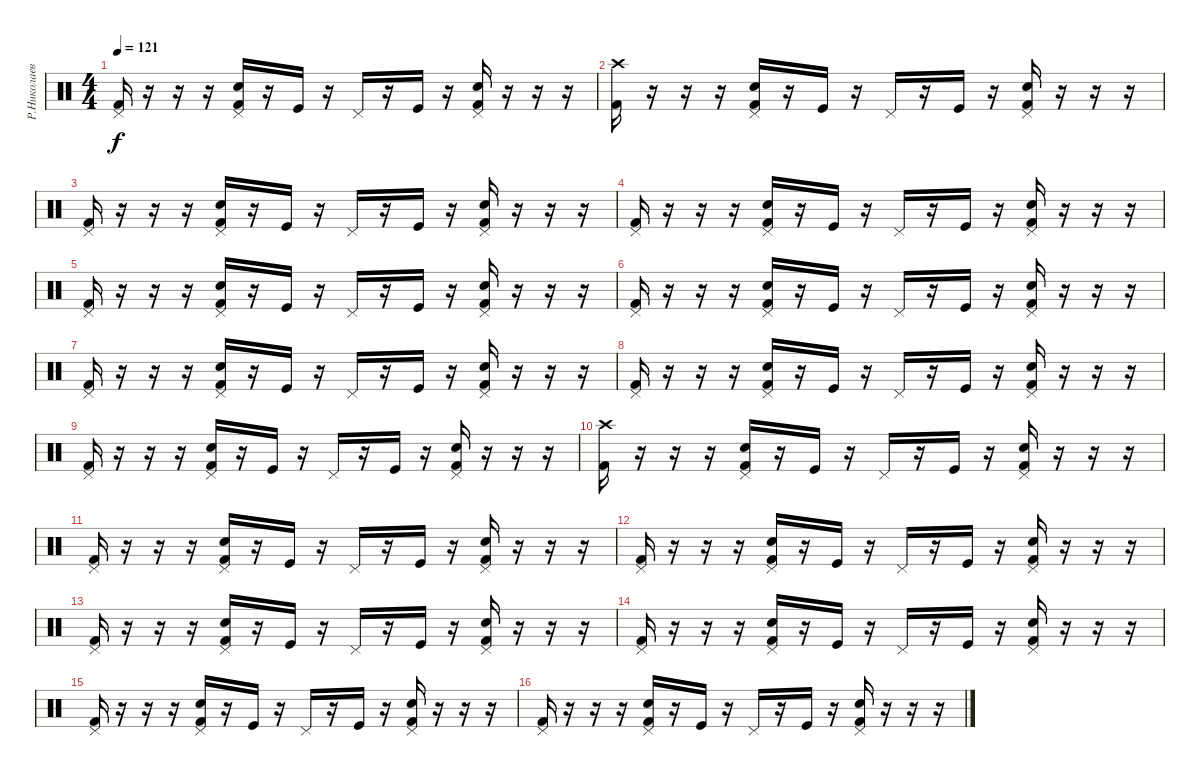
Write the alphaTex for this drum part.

\track ("Р.Николаев" "Р.Николаев") {instrument percussion}
\staff {score}
\articulation defaults
\ts (4 4)
\tempo 121
\clef neutral
\ks c
("Pedal Hi-Hat (hit)" "Kick (hit) 2").16{dy f} r.16 r.16 r.16 ("Pedal Hi-Hat (hit)" "Snare (hit) 2" "Kick (hit) 2").16 r.16 "Kick (hit)".16 r.16 "Pedal Hi-Hat (hit)".16 r.16 "Kick (hit)".16 r.16 ("Pedal Hi-Hat (hit)" "Snare (hit) 2" "Kick (hit) 2").16 r.16 r.16 r.16 |
("Crash high (hit)" "Kick (hit) 2").16 r.16 r.16 r.16 ("Pedal Hi-Hat (hit)" "Snare (hit) 2" "Kick (hit) 2").16 r.16 "Kick (hit)".16 r.16 "Pedal Hi-Hat (hit)".16 r.16 "Kick (hit)".16 r.16 ("Pedal Hi-Hat (hit)" "Snare (hit) 2" "Kick (hit) 2").16 r.16 r.16 r.16 |
("Pedal Hi-Hat (hit)" "Kick (hit) 2").16 r.16 r.16 r.16 ("Pedal Hi-Hat (hit)" "Snare (hit) 2" "Kick (hit) 2").16 r.16 "Kick (hit)".16 r.16 "Pedal Hi-Hat (hit)".16 r.16 "Kick (hit)".16 r.16 ("Pedal Hi-Hat (hit)" "Snare (hit) 2" "Kick (hit) 2").16 r.16 r.16 r.16 |
("Pedal Hi-Hat (hit)" "Kick (hit) 2").16 r.16 r.16 r.16 ("Pedal Hi-Hat (hit)" "Snare (hit) 2" "Kick (hit) 2").16 r.16 "Kick (hit)".16 r.16 "Pedal Hi-Hat (hit)".16 r.16 "Kick (hit)".16 r.16 ("Pedal Hi-Hat (hit)" "Snare (hit) 2" "Kick (hit) 2").16 r.16 r.16 r.16 |
("Pedal Hi-Hat (hit)" "Kick (hit) 2").16 r.16 r.16 r.16 ("Pedal Hi-Hat (hit)" "Snare (hit) 2" "Kick (hit) 2").16 r.16 "Kick (hit)".16 r.16 "Pedal Hi-Hat (hit)".16 r.16 "Kick (hit)".16 r.16 ("Pedal Hi-Hat (hit)" "Snare (hit) 2" "Kick (hit) 2").16 r.16 r.16 r.16 |
("Pedal Hi-Hat (hit)" "Kick (hit) 2").16 r.16 r.16 r.16 ("Pedal Hi-Hat (hit)" "Snare (hit) 2" "Kick (hit) 2").16 r.16 "Kick (hit)".16 r.16 "Pedal Hi-Hat (hit)".16 r.16 "Kick (hit)".16 r.16 ("Pedal Hi-Hat (hit)" "Snare (hit) 2" "Kick (hit) 2").16 r.16 r.16 r.16 |
("Pedal Hi-Hat (hit)" "Kick (hit) 2").16 r.16 r.16 r.16 ("Pedal Hi-Hat (hit)" "Snare (hit) 2" "Kick (hit) 2").16 r.16 "Kick (hit)".16 r.16 "Pedal Hi-Hat (hit)".16 r.16 "Kick (hit)".16 r.16 ("Pedal Hi-Hat (hit)" "Snare (hit) 2" "Kick (hit) 2").16 r.16 r.16 r.16 |
("Pedal Hi-Hat (hit)" "Kick (hit) 2").16 r.16 r.16 r.16 ("Pedal Hi-Hat (hit)" "Snare (hit) 2" "Kick (hit) 2").16 r.16 "Kick (hit)".16 r.16 "Pedal Hi-Hat (hit)".16 r.16 "Kick (hit)".16 r.16 ("Pedal Hi-Hat (hit)" "Snare (hit) 2" "Kick (hit) 2").16 r.16 r.16 r.16 |
("Pedal Hi-Hat (hit)" "Kick (hit) 2").16 r.16 r.16 r.16 ("Pedal Hi-Hat (hit)" "Snare (hit) 2" "Kick (hit) 2").16 r.16 "Kick (hit)".16 r.16 "Pedal Hi-Hat (hit)".16 r.16 "Kick (hit)".16 r.16 ("Pedal Hi-Hat (hit)" "Snare (hit) 2" "Kick (hit) 2").16 r.16 r.16 r.16 |
("Crash high (hit)" "Kick (hit) 2").16 r.16 r.16 r.16 ("Pedal Hi-Hat (hit)" "Snare (hit) 2" "Kick (hit) 2").16 r.16 "Kick (hit)".16 r.16 "Pedal Hi-Hat (hit)".16 r.16 "Kick (hit)".16 r.16 ("Pedal Hi-Hat (hit)" "Snare (hit) 2" "Kick (hit) 2").16 r.16 r.16 r.16 |
("Pedal Hi-Hat (hit)" "Kick (hit) 2").16 r.16 r.16 r.16 ("Pedal Hi-Hat (hit)" "Snare (hit) 2" "Kick (hit) 2").16 r.16 "Kick (hit)".16 r.16 "Pedal Hi-Hat (hit)".16 r.16 "Kick (hit)".16 r.16 ("Pedal Hi-Hat (hit)" "Snare (hit) 2" "Kick (hit) 2").16 r.16 r.16 r.16 |
("Pedal Hi-Hat (hit)" "Kick (hit) 2").16 r.16 r.16 r.16 ("Pedal Hi-Hat (hit)" "Snare (hit) 2" "Kick (hit) 2").16 r.16 "Kick (hit)".16 r.16 "Pedal Hi-Hat (hit)".16 r.16 "Kick (hit)".16 r.16 ("Pedal Hi-Hat (hit)" "Snare (hit) 2" "Kick (hit) 2").16 r.16 r.16 r.16 |
("Pedal Hi-Hat (hit)" "Kick (hit) 2").16 r.16 r.16 r.16 ("Pedal Hi-Hat (hit)" "Snare (hit) 2" "Kick (hit) 2").16 r.16 "Kick (hit)".16 r.16 "Pedal Hi-Hat (hit)".16 r.16 "Kick (hit)".16 r.16 ("Pedal Hi-Hat (hit)" "Snare (hit) 2" "Kick (hit) 2").16 r.16 r.16 r.16 |
("Pedal Hi-Hat (hit)" "Kick (hit) 2").16 r.16 r.16 r.16 ("Pedal Hi-Hat (hit)" "Snare (hit) 2" "Kick (hit) 2").16 r.16 "Kick (hit)".16 r.16 "Pedal Hi-Hat (hit)".16 r.16 "Kick (hit)".16 r.16 ("Pedal Hi-Hat (hit)" "Snare (hit) 2" "Kick (hit) 2").16 r.16 r.16 r.16 |
("Pedal Hi-Hat (hit)" "Kick (hit) 2").16 r.16 r.16 r.16 ("Pedal Hi-Hat (hit)" "Snare (hit) 2" "Kick (hit) 2").16 r.16 "Kick (hit)".16 r.16 "Pedal Hi-Hat (hit)".16 r.16 "Kick (hit)".16 r.16 ("Pedal Hi-Hat (hit)" "Snare (hit) 2" "Kick (hit) 2").16 r.16 r.16 r.16 |
("Pedal Hi-Hat (hit)" "Kick (hit) 2").16 r.16 r.16 r.16 ("Pedal Hi-Hat (hit)" "Snare (hit) 2" "Kick (hit) 2").16 r.16 "Kick (hit)".16 r.16 "Pedal Hi-Hat (hit)".16 r.16 "Kick (hit)".16 r.16 ("Pedal Hi-Hat (hit)" "Snare (hit) 2" "Kick (hit) 2").16 r.16 r.16 r.16
